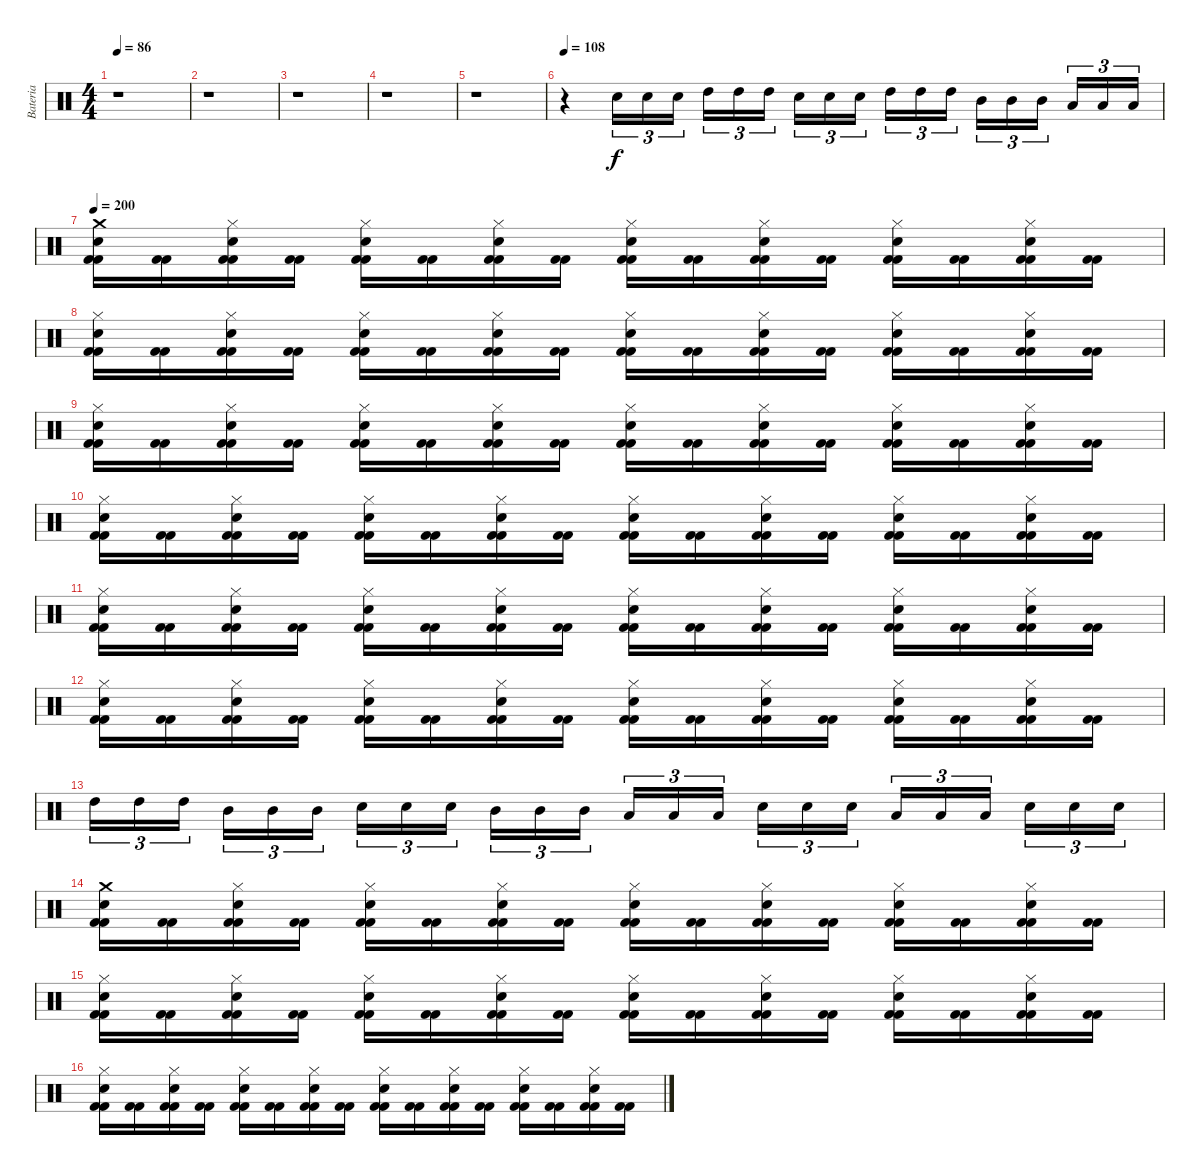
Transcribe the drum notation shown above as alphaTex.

\track ("Bateria" "Bateria") {instrument percussion}
\staff {score}
\articulation defaults
\ts (4 4)
\tempo 86
\clef neutral
\ks c
r.1{dy mp} |
r.1 |
r.1 |
r.1 |
r.1 |
\tempo 108
r.4 "Snare (hit) 2".16{tu (3 2) dy f} "Snare (hit) 2".16{tu (3 2)} "Snare (hit) 2".16{tu (3 2)} "High Tom (hit)".16{tu (3 2)} "High Tom (hit)".16{tu (3 2)} "High Tom (hit)".16{tu (3 2)} "Snare (hit) 2".16{tu (3 2)} "Snare (hit) 2".16{tu (3 2)} "Snare (hit) 2".16{tu (3 2)} "High Tom (hit)".16{tu (3 2)} "High Tom (hit)".16{tu (3 2)} "High Tom (hit)".16{tu (3 2)} "Mid Tom (hit)".16{tu (3 2)} "Mid Tom (hit)".16{tu (3 2)} "Mid Tom (hit)".16{tu (3 2)} "Low Tom (hit)".16{tu (3 2)} "Low Tom (hit)".16{tu (3 2)} "Low Tom (hit)".16{tu (3 2)} |
\tempo 200
("Kick (hit) 2" "Kick (hit) 2" "Snare (hit) 2" "Crash medium (hit)").16 ("Kick (hit) 2" "Kick (hit) 2").16 ("Kick (hit) 2" "Kick (hit) 2" "Snare (hit) 2" "Hi-Hat (closed)").16 ("Kick (hit) 2" "Kick (hit) 2").16 ("Kick (hit) 2" "Kick (hit) 2" "Snare (hit) 2" "Hi-Hat (closed)").16 ("Kick (hit) 2" "Kick (hit) 2").16 ("Kick (hit) 2" "Kick (hit) 2" "Snare (hit) 2" "Hi-Hat (closed)").16 ("Kick (hit) 2" "Kick (hit) 2").16 ("Kick (hit) 2" "Kick (hit) 2" "Snare (hit) 2" "Hi-Hat (closed)").16 ("Kick (hit) 2" "Kick (hit) 2").16 ("Kick (hit) 2" "Kick (hit) 2" "Snare (hit) 2" "Hi-Hat (closed)").16 ("Kick (hit) 2" "Kick (hit) 2").16 ("Kick (hit) 2" "Kick (hit) 2" "Snare (hit) 2" "Hi-Hat (closed)").16 ("Kick (hit) 2" "Kick (hit) 2").16 ("Kick (hit) 2" "Kick (hit) 2" "Snare (hit) 2" "Hi-Hat (closed)").16 ("Kick (hit) 2" "Kick (hit) 2").16 |
("Kick (hit) 2" "Kick (hit) 2" "Snare (hit) 2" "Hi-Hat (closed)").16 ("Kick (hit) 2" "Kick (hit) 2").16 ("Kick (hit) 2" "Kick (hit) 2" "Snare (hit) 2" "Hi-Hat (closed)").16 ("Kick (hit) 2" "Kick (hit) 2").16 ("Kick (hit) 2" "Kick (hit) 2" "Snare (hit) 2" "Hi-Hat (closed)").16 ("Kick (hit) 2" "Kick (hit) 2").16 ("Kick (hit) 2" "Kick (hit) 2" "Snare (hit) 2" "Hi-Hat (closed)").16 ("Kick (hit) 2" "Kick (hit) 2").16 ("Kick (hit) 2" "Kick (hit) 2" "Snare (hit) 2" "Hi-Hat (closed)").16 ("Kick (hit) 2" "Kick (hit) 2").16 ("Kick (hit) 2" "Kick (hit) 2" "Snare (hit) 2" "Hi-Hat (closed)").16 ("Kick (hit) 2" "Kick (hit) 2").16 ("Kick (hit) 2" "Kick (hit) 2" "Snare (hit) 2" "Hi-Hat (closed)").16 ("Kick (hit) 2" "Kick (hit) 2").16 ("Kick (hit) 2" "Kick (hit) 2" "Snare (hit) 2" "Hi-Hat (closed)").16 ("Kick (hit) 2" "Kick (hit) 2").16 |
("Kick (hit) 2" "Kick (hit) 2" "Snare (hit) 2" "Hi-Hat (closed)").16 ("Kick (hit) 2" "Kick (hit) 2").16 ("Kick (hit) 2" "Kick (hit) 2" "Snare (hit) 2" "Hi-Hat (closed)").16 ("Kick (hit) 2" "Kick (hit) 2").16 ("Kick (hit) 2" "Kick (hit) 2" "Snare (hit) 2" "Hi-Hat (closed)").16 ("Kick (hit) 2" "Kick (hit) 2").16 ("Kick (hit) 2" "Kick (hit) 2" "Snare (hit) 2" "Hi-Hat (closed)").16 ("Kick (hit) 2" "Kick (hit) 2").16 ("Kick (hit) 2" "Kick (hit) 2" "Snare (hit) 2" "Hi-Hat (closed)").16 ("Kick (hit) 2" "Kick (hit) 2").16 ("Kick (hit) 2" "Kick (hit) 2" "Snare (hit) 2" "Hi-Hat (closed)").16 ("Kick (hit) 2" "Kick (hit) 2").16 ("Kick (hit) 2" "Kick (hit) 2" "Snare (hit) 2" "Hi-Hat (closed)").16 ("Kick (hit) 2" "Kick (hit) 2").16 ("Kick (hit) 2" "Kick (hit) 2" "Snare (hit) 2" "Hi-Hat (closed)").16 ("Kick (hit) 2" "Kick (hit) 2").16 |
("Kick (hit) 2" "Kick (hit) 2" "Snare (hit) 2" "Hi-Hat (closed)").16 ("Kick (hit) 2" "Kick (hit) 2").16 ("Kick (hit) 2" "Kick (hit) 2" "Snare (hit) 2" "Hi-Hat (closed)").16 ("Kick (hit) 2" "Kick (hit) 2").16 ("Kick (hit) 2" "Kick (hit) 2" "Snare (hit) 2" "Hi-Hat (closed)").16 ("Kick (hit) 2" "Kick (hit) 2").16 ("Kick (hit) 2" "Kick (hit) 2" "Snare (hit) 2" "Hi-Hat (closed)").16 ("Kick (hit) 2" "Kick (hit) 2").16 ("Kick (hit) 2" "Kick (hit) 2" "Snare (hit) 2" "Hi-Hat (closed)").16 ("Kick (hit) 2" "Kick (hit) 2").16 ("Kick (hit) 2" "Kick (hit) 2" "Snare (hit) 2" "Hi-Hat (closed)").16 ("Kick (hit) 2" "Kick (hit) 2").16 ("Kick (hit) 2" "Kick (hit) 2" "Snare (hit) 2" "Hi-Hat (closed)").16 ("Kick (hit) 2" "Kick (hit) 2").16 ("Kick (hit) 2" "Kick (hit) 2" "Snare (hit) 2" "Hi-Hat (closed)").16 ("Kick (hit) 2" "Kick (hit) 2").16 |
("Kick (hit) 2" "Kick (hit) 2" "Snare (hit) 2" "Hi-Hat (closed)").16 ("Kick (hit) 2" "Kick (hit) 2").16 ("Kick (hit) 2" "Kick (hit) 2" "Snare (hit) 2" "Hi-Hat (closed)").16 ("Kick (hit) 2" "Kick (hit) 2").16 ("Kick (hit) 2" "Kick (hit) 2" "Snare (hit) 2" "Hi-Hat (closed)").16 ("Kick (hit) 2" "Kick (hit) 2").16 ("Kick (hit) 2" "Kick (hit) 2" "Snare (hit) 2" "Hi-Hat (closed)").16 ("Kick (hit) 2" "Kick (hit) 2").16 ("Kick (hit) 2" "Kick (hit) 2" "Snare (hit) 2" "Hi-Hat (closed)").16 ("Kick (hit) 2" "Kick (hit) 2").16 ("Kick (hit) 2" "Kick (hit) 2" "Snare (hit) 2" "Hi-Hat (closed)").16 ("Kick (hit) 2" "Kick (hit) 2").16 ("Kick (hit) 2" "Kick (hit) 2" "Snare (hit) 2" "Hi-Hat (closed)").16 ("Kick (hit) 2" "Kick (hit) 2").16 ("Kick (hit) 2" "Kick (hit) 2" "Snare (hit) 2" "Hi-Hat (closed)").16 ("Kick (hit) 2" "Kick (hit) 2").16 |
("Kick (hit) 2" "Kick (hit) 2" "Snare (hit) 2" "Hi-Hat (closed)").16 ("Kick (hit) 2" "Kick (hit) 2").16 ("Kick (hit) 2" "Kick (hit) 2" "Snare (hit) 2" "Hi-Hat (closed)").16 ("Kick (hit) 2" "Kick (hit) 2").16 ("Kick (hit) 2" "Kick (hit) 2" "Snare (hit) 2" "Hi-Hat (closed)").16 ("Kick (hit) 2" "Kick (hit) 2").16 ("Kick (hit) 2" "Kick (hit) 2" "Snare (hit) 2" "Hi-Hat (closed)").16 ("Kick (hit) 2" "Kick (hit) 2").16 ("Kick (hit) 2" "Kick (hit) 2" "Snare (hit) 2" "Hi-Hat (closed)").16 ("Kick (hit) 2" "Kick (hit) 2").16 ("Kick (hit) 2" "Kick (hit) 2" "Snare (hit) 2" "Hi-Hat (closed)").16 ("Kick (hit) 2" "Kick (hit) 2").16 ("Kick (hit) 2" "Kick (hit) 2" "Snare (hit) 2" "Hi-Hat (closed)").16 ("Kick (hit) 2" "Kick (hit) 2").16 ("Kick (hit) 2" "Kick (hit) 2" "Snare (hit) 2" "Hi-Hat (closed)").16 ("Kick (hit) 2" "Kick (hit) 2").16 |
"High Tom (hit)".16{tu (3 2)} "High Tom (hit)".16{tu (3 2)} "High Tom (hit)".16{tu (3 2)} "Mid Tom (hit)".16{tu (3 2)} "Mid Tom (hit)".16{tu (3 2)} "Mid Tom (hit)".16{tu (3 2)} "Snare (hit) 2".16{tu (3 2)} "Snare (hit) 2".16{tu (3 2)} "Snare (hit) 2".16{tu (3 2)} "Mid Tom (hit)".16{tu (3 2)} "Mid Tom (hit)".16{tu (3 2)} "Mid Tom (hit)".16{tu (3 2)} "Low Tom (hit)".16{tu (3 2)} "Low Tom (hit)".16{tu (3 2)} "Low Tom (hit)".16{tu (3 2)} "Snare (hit) 2".16{tu (3 2)} "Snare (hit) 2".16{tu (3 2)} "Snare (hit) 2".16{tu (3 2)} "Low Tom (hit)".16{tu (3 2)} "Low Tom (hit)".16{tu (3 2)} "Low Tom (hit)".16{tu (3 2)} "Snare (hit) 2".16{tu (3 2)} "Snare (hit) 2".16{tu (3 2)} "Snare (hit) 2".16{tu (3 2)} |
("Kick (hit) 2" "Kick (hit) 2" "Snare (hit) 2" "Crash medium (hit)").16 ("Kick (hit) 2" "Kick (hit) 2").16 ("Kick (hit) 2" "Kick (hit) 2" "Snare (hit) 2" "Hi-Hat (closed)").16 ("Kick (hit) 2" "Kick (hit) 2").16 ("Kick (hit) 2" "Kick (hit) 2" "Snare (hit) 2" "Hi-Hat (closed)").16 ("Kick (hit) 2" "Kick (hit) 2").16 ("Kick (hit) 2" "Kick (hit) 2" "Snare (hit) 2" "Hi-Hat (closed)").16 ("Kick (hit) 2" "Kick (hit) 2").16 ("Kick (hit) 2" "Kick (hit) 2" "Snare (hit) 2" "Hi-Hat (closed)").16 ("Kick (hit) 2" "Kick (hit) 2").16 ("Kick (hit) 2" "Kick (hit) 2" "Snare (hit) 2" "Hi-Hat (closed)").16 ("Kick (hit) 2" "Kick (hit) 2").16 ("Kick (hit) 2" "Kick (hit) 2" "Snare (hit) 2" "Hi-Hat (closed)").16 ("Kick (hit) 2" "Kick (hit) 2").16 ("Kick (hit) 2" "Kick (hit) 2" "Snare (hit) 2" "Hi-Hat (closed)").16 ("Kick (hit) 2" "Kick (hit) 2").16 |
("Kick (hit) 2" "Kick (hit) 2" "Snare (hit) 2" "Hi-Hat (closed)").16 ("Kick (hit) 2" "Kick (hit) 2").16 ("Kick (hit) 2" "Kick (hit) 2" "Snare (hit) 2" "Hi-Hat (closed)").16 ("Kick (hit) 2" "Kick (hit) 2").16 ("Kick (hit) 2" "Kick (hit) 2" "Snare (hit) 2" "Hi-Hat (closed)").16 ("Kick (hit) 2" "Kick (hit) 2").16 ("Kick (hit) 2" "Kick (hit) 2" "Snare (hit) 2" "Hi-Hat (closed)").16 ("Kick (hit) 2" "Kick (hit) 2").16 ("Kick (hit) 2" "Kick (hit) 2" "Snare (hit) 2" "Hi-Hat (closed)").16 ("Kick (hit) 2" "Kick (hit) 2").16 ("Kick (hit) 2" "Kick (hit) 2" "Snare (hit) 2" "Hi-Hat (closed)").16 ("Kick (hit) 2" "Kick (hit) 2").16 ("Kick (hit) 2" "Kick (hit) 2" "Snare (hit) 2" "Hi-Hat (closed)").16 ("Kick (hit) 2" "Kick (hit) 2").16 ("Kick (hit) 2" "Kick (hit) 2" "Snare (hit) 2" "Hi-Hat (closed)").16 ("Kick (hit) 2" "Kick (hit) 2").16 |
("Kick (hit) 2" "Kick (hit) 2" "Snare (hit) 2" "Hi-Hat (closed)").16 ("Kick (hit) 2" "Kick (hit) 2").16 ("Kick (hit) 2" "Kick (hit) 2" "Snare (hit) 2" "Hi-Hat (closed)").16 ("Kick (hit) 2" "Kick (hit) 2").16 ("Kick (hit) 2" "Kick (hit) 2" "Snare (hit) 2" "Hi-Hat (closed)").16 ("Kick (hit) 2" "Kick (hit) 2").16 ("Kick (hit) 2" "Kick (hit) 2" "Snare (hit) 2" "Hi-Hat (closed)").16 ("Kick (hit) 2" "Kick (hit) 2").16 ("Kick (hit) 2" "Kick (hit) 2" "Snare (hit) 2" "Hi-Hat (closed)").16 ("Kick (hit) 2" "Kick (hit) 2").16 ("Kick (hit) 2" "Kick (hit) 2" "Snare (hit) 2" "Hi-Hat (closed)").16 ("Kick (hit) 2" "Kick (hit) 2").16 ("Kick (hit) 2" "Kick (hit) 2" "Snare (hit) 2" "Hi-Hat (closed)").16 ("Kick (hit) 2" "Kick (hit) 2").16 ("Kick (hit) 2" "Kick (hit) 2" "Snare (hit) 2" "Hi-Hat (closed)").16 ("Kick (hit) 2" "Kick (hit) 2").16
